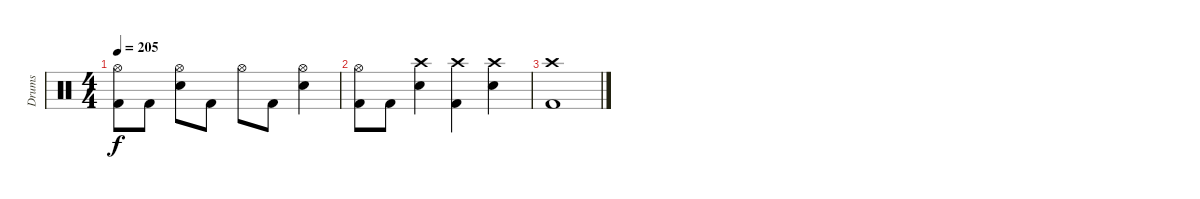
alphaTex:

\track ("Drums" "Drums") {instrument percussion}
\staff {score}
\articulation defaults
\ts (4 4)
\tempo 205
\clef neutral
\ks c
("Hi-Hat (open)" "Kick (hit) 2").8{dy f} "Kick (hit) 2".8 ("Hi-Hat (open)" "Electric Snare (hit)").8 "Kick (hit) 2".8 "Hi-Hat (open)".8 "Kick (hit) 2".8 ("Hi-Hat (open)" "Electric Snare (hit)").4 |
("Hi-Hat (open)" "Kick (hit) 2").8 "Kick (hit) 2".8 ("Crash high (hit)" "Electric Snare (hit)").4 ("Crash high (hit)" "Kick (hit) 2").4 ("Crash high (hit)" "Electric Snare (hit)").4 |
("Crash high (hit)" "Kick (hit) 2").1
